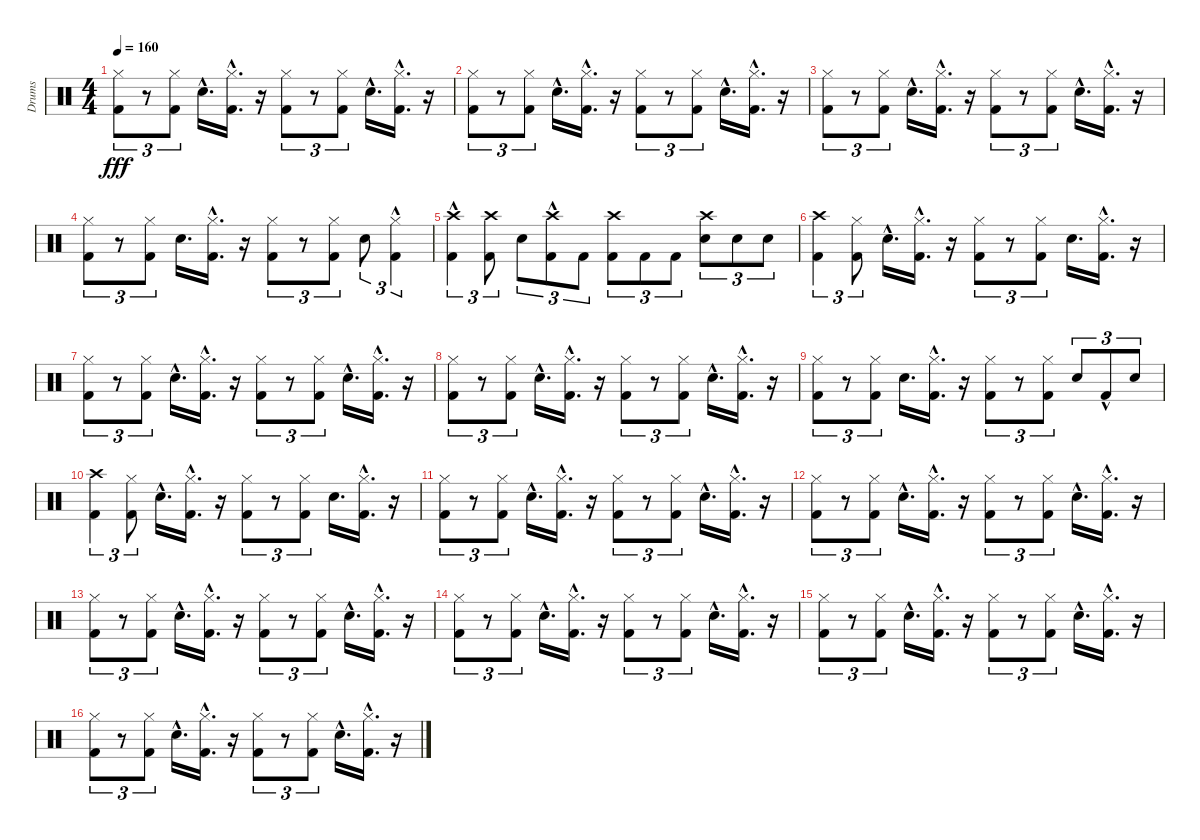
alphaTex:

\track ("Drums" "Drums") {instrument percussion}
\staff {score}
\articulation defaults
\ts (4 4)
\tempo 160
\clef neutral
\ks c
("Kick (hit) 2" "Hi-Hat (closed)").8{tu (3 2) dy fff} r.8{tu (3 2)} ("Kick (hit) 2" "Hi-Hat (closed)").8{tu (3 2)} "Snare (hit) 2"{hac}.16{d} ("Kick (hit) 2"{hac} "Hi-Hat (closed)"{hac}).16{d} r.16 ("Kick (hit) 2" "Hi-Hat (closed)").8{tu (3 2)} r.8{tu (3 2)} ("Kick (hit) 2" "Hi-Hat (closed)").8{tu (3 2)} "Snare (hit) 2"{hac}.16{d} ("Kick (hit) 2"{hac} "Hi-Hat (closed)"{hac}).16{d} r.16 |
("Kick (hit) 2" "Hi-Hat (closed)").8{tu (3 2)} r.8{tu (3 2)} ("Kick (hit) 2" "Hi-Hat (closed)").8{tu (3 2)} "Snare (hit) 2"{hac}.16{d} ("Kick (hit) 2"{hac} "Hi-Hat (closed)"{hac}).16{d} r.16 ("Kick (hit) 2" "Hi-Hat (closed)").8{tu (3 2)} r.8{tu (3 2)} ("Kick (hit) 2" "Hi-Hat (closed)").8{tu (3 2)} "Snare (hit) 2"{hac}.16{d} ("Kick (hit) 2"{hac} "Hi-Hat (closed)"{hac}).16{d} r.16 |
("Kick (hit) 2" "Hi-Hat (closed)").8{tu (3 2)} r.8{tu (3 2)} ("Kick (hit) 2" "Hi-Hat (closed)").8{tu (3 2)} "Snare (hit) 2"{hac}.16{d} ("Kick (hit) 2"{hac} "Hi-Hat (closed)"{hac}).16{d} r.16 ("Kick (hit) 2" "Hi-Hat (closed)").8{tu (3 2)} r.8{tu (3 2)} ("Kick (hit) 2" "Hi-Hat (closed)").8{tu (3 2)} "Snare (hit) 2"{hac}.16{d} ("Kick (hit) 2"{hac} "Hi-Hat (closed)"{hac}).16{d} r.16 |
("Hi-Hat (closed)" "Kick (hit) 2").8{tu (3 2)} r.8{tu (3 2)} ("Hi-Hat (closed)" "Kick (hit) 2").8{tu (3 2)} "Snare (hit) 2".16{d} ("Hi-Hat (closed)"{hac} "Kick (hit) 2"{hac}).16{d} r.16 ("Hi-Hat (closed)" "Kick (hit) 2").8{tu (3 2)} r.8{tu (3 2)} ("Hi-Hat (closed)" "Kick (hit) 2").8{tu (3 2)} "Snare (hit) 2".8{tu (3 2)} ("Hi-Hat (closed)" "Kick (hit) 2"{hac}).4{tu (3 2)} |
("Kick (hit) 2"{hac} "Crash high (hit)").4{tu (3 2)} ("Kick (hit) 2" "Crash high (hit)").8{tu (3 2)} "Snare (hit) 2".8{tu (3 2)} ("Kick (hit) 2"{hac} "Crash high (hit)").8{tu (3 2)} "Kick (hit) 2".8{tu (3 2)} ("Kick (hit) 2" "Crash high (hit)").8{tu (3 2)} "Kick (hit) 2".8{tu (3 2)} "Kick (hit) 2".8{tu (3 2)} ("Snare (hit) 2" "Crash high (hit)").8{tu (3 2)} "Snare (hit) 2".8{tu (3 2)} "Snare (hit) 2".8{tu (3 2)} |
("Kick (hit) 2" "Crash high (hit)").4{tu (3 2)} ("Kick (hit) 2" "Hi-Hat (closed)").8{tu (3 2)} "Snare (hit) 2"{hac}.16{d} ("Kick (hit) 2"{hac} "Hi-Hat (closed)"{hac}).16{d} r.16 ("Kick (hit) 2" "Hi-Hat (closed)").8{tu (3 2)} r.8{tu (3 2)} ("Kick (hit) 2" "Hi-Hat (closed)").8{tu (3 2)} "Snare (hit) 2".16{d} ("Kick (hit) 2"{hac} "Hi-Hat (closed)"{hac}).16{d} r.16 |
("Kick (hit) 2" "Hi-Hat (closed)").8{tu (3 2)} r.8{tu (3 2)} ("Kick (hit) 2" "Hi-Hat (closed)").8{tu (3 2)} "Snare (hit) 2"{hac}.16{d} ("Kick (hit) 2"{hac} "Hi-Hat (closed)"{hac}).16{d} r.16 ("Kick (hit) 2" "Hi-Hat (closed)").8{tu (3 2)} r.8{tu (3 2)} ("Kick (hit) 2" "Hi-Hat (closed)").8{tu (3 2)} "Snare (hit) 2"{hac}.16{d} ("Kick (hit) 2"{hac} "Hi-Hat (closed)"{hac}).16{d} r.16 |
("Kick (hit) 2" "Hi-Hat (closed)").8{tu (3 2)} r.8{tu (3 2)} ("Kick (hit) 2" "Hi-Hat (closed)").8{tu (3 2)} "Snare (hit) 2"{hac}.16{d} ("Kick (hit) 2"{hac} "Hi-Hat (closed)"{hac}).16{d} r.16 ("Kick (hit) 2" "Hi-Hat (closed)").8{tu (3 2)} r.8{tu (3 2)} ("Kick (hit) 2" "Hi-Hat (closed)").8{tu (3 2)} "Snare (hit) 2"{hac}.16{d} ("Kick (hit) 2"{hac} "Hi-Hat (closed)"{hac}).16{d} r.16 |
("Kick (hit) 2" "Hi-Hat (closed)").8{tu (3 2)} r.8{tu (3 2)} ("Kick (hit) 2" "Hi-Hat (closed)").8{tu (3 2)} "Snare (hit) 2".16{d} ("Kick (hit) 2"{hac} "Hi-Hat (closed)"{hac}).16{d} r.16 ("Kick (hit) 2" "Hi-Hat (closed)").8{tu (3 2)} r.8{tu (3 2)} ("Kick (hit) 2" "Hi-Hat (closed)").8{tu (3 2)} "Snare (hit) 2".8{tu (3 2)} "Kick (hit) 2"{hac}.8{tu (3 2)} "Snare (hit) 2".8{tu (3 2)} |
("Kick (hit) 2" "Crash high (hit)").4{tu (3 2)} ("Kick (hit) 2" "Hi-Hat (closed)").8{tu (3 2)} "Snare (hit) 2"{hac}.16{d} ("Kick (hit) 2"{hac} "Hi-Hat (closed)"{hac}).16{d} r.16 ("Kick (hit) 2" "Hi-Hat (closed)").8{tu (3 2)} r.8{tu (3 2)} ("Kick (hit) 2" "Hi-Hat (closed)").8{tu (3 2)} "Snare (hit) 2".16{d} ("Kick (hit) 2"{hac} "Hi-Hat (closed)"{hac}).16{d} r.16 |
("Kick (hit) 2" "Hi-Hat (closed)").8{tu (3 2)} r.8{tu (3 2)} ("Kick (hit) 2" "Hi-Hat (closed)").8{tu (3 2)} "Snare (hit) 2"{hac}.16{d} ("Kick (hit) 2"{hac} "Hi-Hat (closed)"{hac}).16{d} r.16 ("Kick (hit) 2" "Hi-Hat (closed)").8{tu (3 2)} r.8{tu (3 2)} ("Kick (hit) 2" "Hi-Hat (closed)").8{tu (3 2)} "Snare (hit) 2"{hac}.16{d} ("Kick (hit) 2"{hac} "Hi-Hat (closed)"{hac}).16{d} r.16 |
("Kick (hit) 2" "Hi-Hat (closed)").8{tu (3 2)} r.8{tu (3 2)} ("Kick (hit) 2" "Hi-Hat (closed)").8{tu (3 2)} "Snare (hit) 2"{hac}.16{d} ("Kick (hit) 2"{hac} "Hi-Hat (closed)"{hac}).16{d} r.16 ("Kick (hit) 2" "Hi-Hat (closed)").8{tu (3 2)} r.8{tu (3 2)} ("Kick (hit) 2" "Hi-Hat (closed)").8{tu (3 2)} "Snare (hit) 2"{hac}.16{d} ("Kick (hit) 2"{hac} "Hi-Hat (closed)"{hac}).16{d} r.16 |
("Kick (hit) 2" "Hi-Hat (closed)").8{tu (3 2)} r.8{tu (3 2)} ("Kick (hit) 2" "Hi-Hat (closed)").8{tu (3 2)} "Snare (hit) 2"{hac}.16{d} ("Kick (hit) 2"{hac} "Hi-Hat (closed)"{hac}).16{d} r.16 ("Kick (hit) 2" "Hi-Hat (closed)").8{tu (3 2)} r.8{tu (3 2)} ("Kick (hit) 2" "Hi-Hat (closed)").8{tu (3 2)} "Snare (hit) 2"{hac}.16{d} ("Kick (hit) 2"{hac} "Hi-Hat (closed)"{hac}).16{d} r.16 |
("Kick (hit) 2" "Hi-Hat (closed)").8{tu (3 2)} r.8{tu (3 2)} ("Kick (hit) 2" "Hi-Hat (closed)").8{tu (3 2)} "Snare (hit) 2"{hac}.16{d} ("Kick (hit) 2"{hac} "Hi-Hat (closed)"{hac}).16{d} r.16 ("Kick (hit) 2" "Hi-Hat (closed)").8{tu (3 2)} r.8{tu (3 2)} ("Kick (hit) 2" "Hi-Hat (closed)").8{tu (3 2)} "Snare (hit) 2"{hac}.16{d} ("Kick (hit) 2"{hac} "Hi-Hat (closed)"{hac}).16{d} r.16 |
("Kick (hit) 2" "Hi-Hat (closed)").8{tu (3 2)} r.8{tu (3 2)} ("Kick (hit) 2" "Hi-Hat (closed)").8{tu (3 2)} "Snare (hit) 2"{hac}.16{d} ("Kick (hit) 2"{hac} "Hi-Hat (closed)"{hac}).16{d} r.16 ("Kick (hit) 2" "Hi-Hat (closed)").8{tu (3 2)} r.8{tu (3 2)} ("Kick (hit) 2" "Hi-Hat (closed)").8{tu (3 2)} "Snare (hit) 2"{hac}.16{d} ("Kick (hit) 2"{hac} "Hi-Hat (closed)"{hac}).16{d} r.16 |
("Kick (hit) 2" "Hi-Hat (closed)").8{tu (3 2)} r.8{tu (3 2)} ("Kick (hit) 2" "Hi-Hat (closed)").8{tu (3 2)} "Snare (hit) 2"{hac}.16{d} ("Kick (hit) 2"{hac} "Hi-Hat (closed)"{hac}).16{d} r.16 ("Kick (hit) 2" "Hi-Hat (closed)").8{tu (3 2)} r.8{tu (3 2)} ("Kick (hit) 2" "Hi-Hat (closed)").8{tu (3 2)} "Snare (hit) 2"{hac}.16{d} ("Kick (hit) 2"{hac} "Hi-Hat (closed)"{hac}).16{d} r.16
